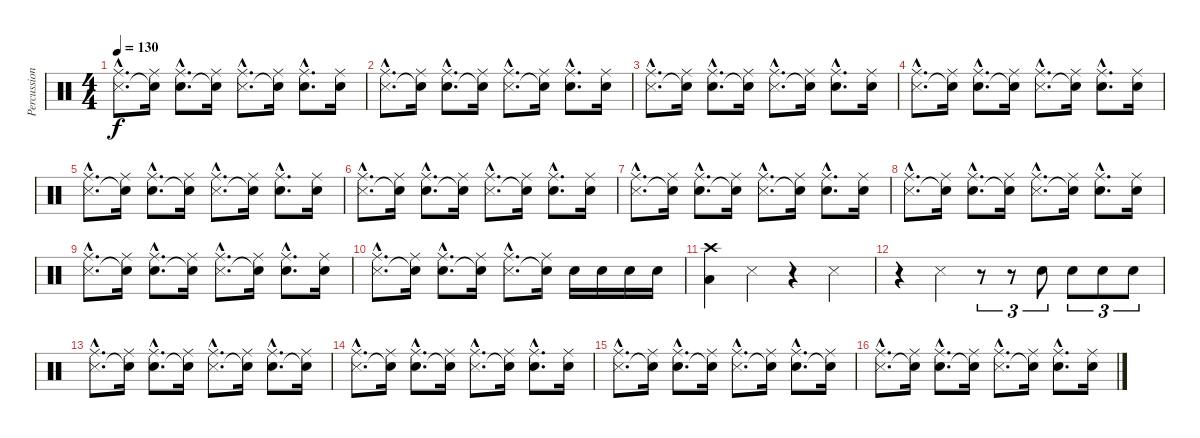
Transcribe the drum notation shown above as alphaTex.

\track ("Percussion" "Percussion") {instrument percussion}
\staff {score}
\articulation defaults
\ts (4 4)
\tempo 130
\clef neutral
\ks c
("Ride (middle)"{hac} "Snare (side stick) 3"{hac}).8{d dy f} ("Ride (middle)" "Snare (hit)"{t}).16 ("Ride (middle)"{hac} "Electric Snare (hit)"{hac}).8{d} ("Ride (middle)" "Snare (hit)"{t}).16 ("Ride (middle)"{hac} "Snare (side stick) 3"{hac}).8{d} ("Ride (middle)" "Snare (hit)"{t}).16 ("Ride (middle)"{hac} "Electric Snare (hit)"{hac}).8{d} ("Ride (middle)" "Electric Snare (hit)").16 |
("Ride (middle)"{hac} "Snare (side stick) 3"{hac}).8{d} ("Ride (middle)" "Snare (hit)"{t}).16 ("Ride (middle)"{hac} "Electric Snare (hit)"{hac}).8{d} ("Ride (middle)" "Snare (hit)"{t}).16 ("Ride (middle)"{hac} "Snare (side stick) 3"{hac}).8{d} ("Ride (middle)" "Snare (hit)"{t}).16 ("Ride (middle)"{hac} "Electric Snare (hit)"{hac}).8{d} ("Ride (middle)" "Electric Snare (hit)").16 |
("Ride (middle)"{hac} "Snare (side stick) 3"{hac}).8{d} ("Ride (middle)" "Snare (hit)"{t}).16 ("Ride (middle)"{hac} "Electric Snare (hit)"{hac}).8{d} ("Ride (middle)" "Snare (hit)"{t}).16 ("Ride (middle)"{hac} "Snare (side stick) 3"{hac}).8{d} ("Ride (middle)" "Snare (hit)"{t}).16 ("Ride (middle)"{hac} "Electric Snare (hit)"{hac}).8{d} ("Ride (middle)" "Electric Snare (hit)").16 |
("Ride (middle)"{hac} "Snare (side stick) 3"{hac}).8{d} ("Ride (middle)" "Snare (hit)"{t}).16 ("Ride (middle)"{hac} "Electric Snare (hit)"{hac}).8{d} ("Ride (middle)" "Snare (hit)"{t}).16 ("Ride (middle)"{hac} "Snare (side stick) 3"{hac}).8{d} ("Ride (middle)" "Snare (hit)"{t}).16 ("Ride (middle)"{hac} "Electric Snare (hit)"{hac}).8{d} ("Ride (middle)" "Electric Snare (hit)").16 |
("Ride (middle)"{hac} "Snare (side stick) 3"{hac}).8{d} ("Ride (middle)" "Snare (hit)"{t}).16 ("Ride (middle)"{hac} "Electric Snare (hit)"{hac}).8{d} ("Ride (middle)" "Snare (hit)"{t}).16 ("Ride (middle)"{hac} "Snare (side stick) 3"{hac}).8{d} ("Ride (middle)" "Snare (hit)"{t}).16 ("Ride (middle)"{hac} "Electric Snare (hit)"{hac}).8{d} ("Ride (middle)" "Electric Snare (hit)").16 |
("Ride (middle)"{hac} "Snare (side stick) 3"{hac}).8{d} ("Ride (middle)" "Snare (hit)"{t}).16 ("Ride (middle)"{hac} "Electric Snare (hit)"{hac}).8{d} ("Ride (middle)" "Snare (hit)"{t}).16 ("Ride (middle)"{hac} "Snare (side stick) 3"{hac}).8{d} ("Ride (middle)" "Snare (hit)"{t}).16 ("Ride (middle)"{hac} "Electric Snare (hit)"{hac}).8{d} ("Ride (middle)" "Electric Snare (hit)").16 |
("Ride (middle)"{hac} "Snare (side stick) 3"{hac}).8{d} ("Ride (middle)" "Snare (hit)"{t}).16 ("Ride (middle)"{hac} "Electric Snare (hit)"{hac}).8{d} ("Ride (middle)" "Snare (hit)"{t}).16 ("Ride (middle)"{hac} "Snare (side stick) 3"{hac}).8{d} ("Ride (middle)" "Snare (hit)"{t}).16 ("Ride (middle)"{hac} "Electric Snare (hit)"{hac}).8{d} ("Ride (middle)" "Electric Snare (hit)").16 |
("Ride (middle)"{hac} "Snare (side stick) 3"{hac}).8{d} ("Ride (middle)" "Snare (hit)"{t}).16 ("Ride (middle)"{hac} "Electric Snare (hit)"{hac}).8{d} ("Ride (middle)" "Snare (hit)"{t}).16 ("Ride (middle)"{hac} "Snare (side stick) 3"{hac}).8{d} ("Ride (middle)" "Snare (hit)"{t}).16 ("Ride (middle)"{hac} "Electric Snare (hit)"{hac}).8{d} ("Ride (middle)" "Electric Snare (hit)").16 |
("Ride (middle)"{hac} "Snare (side stick) 3"{hac}).8{d} ("Ride (middle)" "Snare (hit)"{t}).16 ("Ride (middle)"{hac} "Electric Snare (hit)"{hac}).8{d} ("Ride (middle)" "Snare (hit)"{t}).16 ("Ride (middle)"{hac} "Snare (side stick) 3"{hac}).8{d} ("Ride (middle)" "Snare (hit)"{t}).16 ("Ride (middle)"{hac} "Electric Snare (hit)"{hac}).8{d} ("Ride (middle)" "Electric Snare (hit)").16 |
("Ride (middle)"{hac} "Snare (side stick) 3"{hac}).8{d} ("Ride (middle)" "Snare (hit)"{t}).16 ("Ride (middle)"{hac} "Electric Snare (hit)"{hac}).8{d} ("Ride (middle)" "Snare (hit)"{t}).16 ("Ride (middle)"{hac} "Snare (side stick) 3"{hac}).8{d} ("Ride (middle)" "Snare (hit)"{t}).16 "Snare (hit) 2".16 "Electric Snare (hit)".16 "Electric Snare (hit)".16 "Electric Snare (hit)".16 |
("Crash high (hit)" "Low Tom (hit)").4 "Snare (side stick) 3".4 r.4 "Snare (side stick) 3".4 |
r.4 "Snare (side stick) 3".4 r.8{tu (3 2)} r.8{tu (3 2)} "Snare (hit) 2".8{tu (3 2)} "Electric Snare (hit)".8{tu (3 2)} "Electric Snare (hit)".8{tu (3 2)} "Electric Snare (hit)".8{tu (3 2)} |
("Ride (middle)"{hac} "Snare (side stick) 3"{hac}).8{d} ("Ride (middle)" "Snare (hit)"{t}).16 ("Ride (middle)"{hac} "Electric Snare (hit)"{hac}).8{d} ("Ride (middle)" "Snare (hit)"{t}).16 ("Ride (middle)"{hac} "Snare (side stick) 3"{hac}).8{d} ("Ride (middle)" "Snare (hit)"{t}).16 ("Ride (middle)"{hac} "Electric Snare (hit)"{hac}).8{d} ("Ride (middle)" "Electric Snare (hit)"{t}).16 |
("Ride (middle)"{hac} "Snare (side stick) 3"{hac}).8{d} ("Ride (middle)" "Snare (hit)"{t}).16 ("Ride (middle)"{hac} "Electric Snare (hit)"{hac}).8{d} ("Ride (middle)" "Snare (hit)"{t}).16 ("Ride (middle)"{hac} "Snare (side stick) 3"{hac}).8{d} ("Ride (middle)" "Snare (hit)"{t}).16 ("Ride (middle)"{hac} "Electric Snare (hit)"{hac}).8{d} ("Ride (middle)" "Electric Snare (hit)").16 |
("Ride (middle)"{hac} "Snare (side stick) 3"{hac}).8{d} ("Ride (middle)" "Snare (hit)"{t}).16 ("Ride (middle)"{hac} "Electric Snare (hit)"{hac}).8{d} ("Ride (middle)" "Snare (hit)"{t}).16 ("Ride (middle)"{hac} "Snare (side stick) 3"{hac}).8{d} ("Ride (middle)" "Snare (hit)"{t}).16 ("Ride (middle)"{hac} "Electric Snare (hit)"{hac}).8{d} ("Ride (middle)" "Electric Snare (hit)"{t}).16 |
("Ride (middle)"{hac} "Snare (side stick) 3"{hac}).8{d} ("Ride (middle)" "Snare (hit)"{t}).16 ("Ride (middle)"{hac} "Electric Snare (hit)"{hac}).8{d} ("Ride (middle)" "Snare (hit)"{t}).16 ("Ride (middle)"{hac} "Snare (side stick) 3"{hac}).8{d} ("Ride (middle)" "Snare (hit)"{t}).16 ("Ride (middle)"{hac} "Electric Snare (hit)"{hac}).8{d} ("Ride (middle)" "Electric Snare (hit)").16
